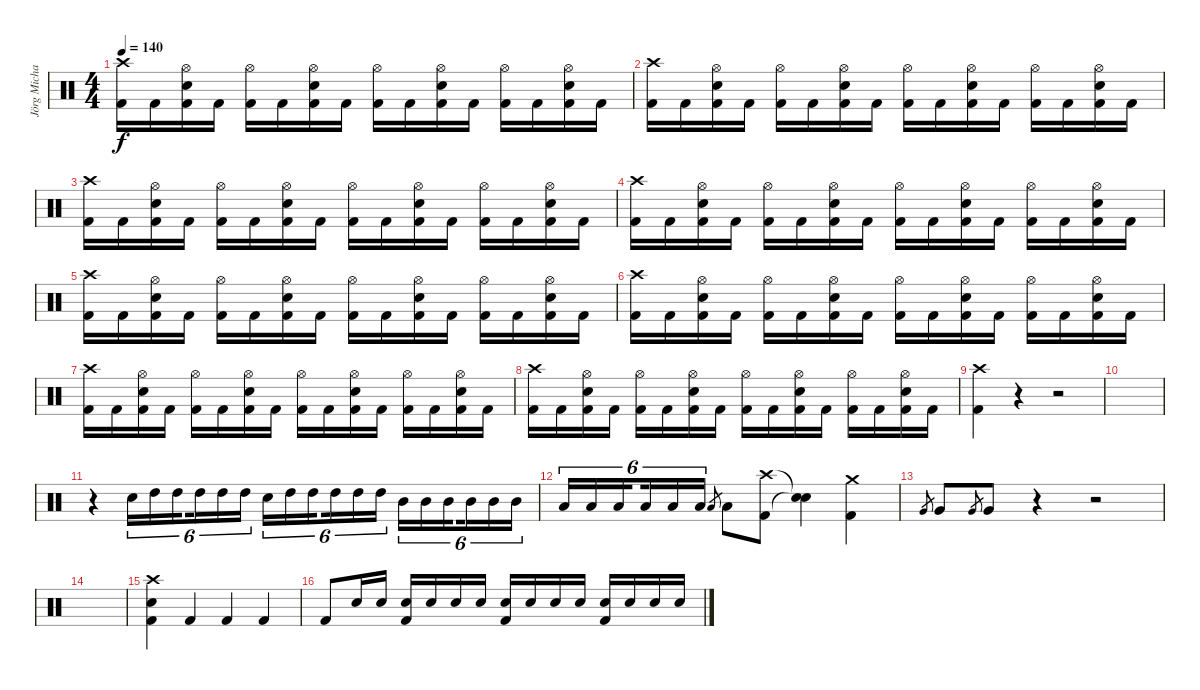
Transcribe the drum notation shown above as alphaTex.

\track ("Jörg Michael" "Jörg Micha") {instrument percussion}
\staff {score}
\articulation defaults
\ts (4 4)
\tempo 140
\clef neutral
\ks c
("Crash high (hit)" "Kick (hit) 2").16{dy f} "Kick (hit) 2".16 ("Electric Snare (hit)" "Kick (hit) 2" "Hi-Hat (open)").16 "Kick (hit) 2".16 ("Kick (hit) 2" "Hi-Hat (open)").16 "Kick (hit) 2".16 ("Electric Snare (hit)" "Kick (hit) 2" "Hi-Hat (open)").16 "Kick (hit) 2".16 ("Kick (hit) 2" "Hi-Hat (open)").16 "Kick (hit) 2".16 ("Electric Snare (hit)" "Kick (hit) 2" "Hi-Hat (open)").16 "Kick (hit) 2".16 ("Kick (hit) 2" "Hi-Hat (open)").16 "Kick (hit) 2".16 ("Electric Snare (hit)" "Kick (hit) 2" "Hi-Hat (open)").16 "Kick (hit) 2".16 |
("Crash high (hit)" "Kick (hit) 2").16 "Kick (hit) 2".16 ("Electric Snare (hit)" "Kick (hit) 2" "Hi-Hat (open)").16 "Kick (hit) 2".16 ("Kick (hit) 2" "Hi-Hat (open)").16 "Kick (hit) 2".16 ("Electric Snare (hit)" "Kick (hit) 2" "Hi-Hat (open)").16 "Kick (hit) 2".16 ("Kick (hit) 2" "Hi-Hat (open)").16 "Kick (hit) 2".16 ("Electric Snare (hit)" "Kick (hit) 2" "Hi-Hat (open)").16 "Kick (hit) 2".16 ("Kick (hit) 2" "Hi-Hat (open)").16 "Kick (hit) 2".16 ("Electric Snare (hit)" "Kick (hit) 2" "Hi-Hat (open)").16 "Kick (hit) 2".16 |
("Crash high (hit)" "Kick (hit) 2").16 "Kick (hit) 2".16 ("Electric Snare (hit)" "Kick (hit) 2" "Hi-Hat (open)").16 "Kick (hit) 2".16 ("Kick (hit) 2" "Hi-Hat (open)").16 "Kick (hit) 2".16 ("Electric Snare (hit)" "Kick (hit) 2" "Hi-Hat (open)").16 "Kick (hit) 2".16 ("Kick (hit) 2" "Hi-Hat (open)").16 "Kick (hit) 2".16 ("Electric Snare (hit)" "Kick (hit) 2" "Hi-Hat (open)").16 "Kick (hit) 2".16 ("Kick (hit) 2" "Hi-Hat (open)").16 "Kick (hit) 2".16 ("Electric Snare (hit)" "Kick (hit) 2" "Hi-Hat (open)").16 "Kick (hit) 2".16 |
("Crash high (hit)" "Kick (hit) 2").16 "Kick (hit) 2".16 ("Electric Snare (hit)" "Kick (hit) 2" "Hi-Hat (open)").16 "Kick (hit) 2".16 ("Kick (hit) 2" "Hi-Hat (open)").16 "Kick (hit) 2".16 ("Electric Snare (hit)" "Kick (hit) 2" "Hi-Hat (open)").16 "Kick (hit) 2".16 ("Kick (hit) 2" "Hi-Hat (open)").16 "Kick (hit) 2".16 ("Electric Snare (hit)" "Kick (hit) 2" "Hi-Hat (open)").16 "Kick (hit) 2".16 ("Kick (hit) 2" "Hi-Hat (open)").16 "Kick (hit) 2".16 ("Electric Snare (hit)" "Kick (hit) 2" "Hi-Hat (open)").16 "Kick (hit) 2".16 |
("Crash high (hit)" "Kick (hit) 2").16 "Kick (hit) 2".16 ("Electric Snare (hit)" "Kick (hit) 2" "Hi-Hat (open)").16 "Kick (hit) 2".16 ("Kick (hit) 2" "Hi-Hat (open)").16 "Kick (hit) 2".16 ("Electric Snare (hit)" "Kick (hit) 2" "Hi-Hat (open)").16 "Kick (hit) 2".16 ("Kick (hit) 2" "Hi-Hat (open)").16 "Kick (hit) 2".16 ("Electric Snare (hit)" "Kick (hit) 2" "Hi-Hat (open)").16 "Kick (hit) 2".16 ("Kick (hit) 2" "Hi-Hat (open)").16 "Kick (hit) 2".16 ("Electric Snare (hit)" "Kick (hit) 2" "Hi-Hat (open)").16 "Kick (hit) 2".16 |
("Crash high (hit)" "Kick (hit) 2").16 "Kick (hit) 2".16 ("Electric Snare (hit)" "Kick (hit) 2" "Hi-Hat (open)").16 "Kick (hit) 2".16 ("Kick (hit) 2" "Hi-Hat (open)").16 "Kick (hit) 2".16 ("Electric Snare (hit)" "Kick (hit) 2" "Hi-Hat (open)").16 "Kick (hit) 2".16 ("Kick (hit) 2" "Hi-Hat (open)").16 "Kick (hit) 2".16 ("Electric Snare (hit)" "Kick (hit) 2" "Hi-Hat (open)").16 "Kick (hit) 2".16 ("Kick (hit) 2" "Hi-Hat (open)").16 "Kick (hit) 2".16 ("Electric Snare (hit)" "Kick (hit) 2" "Hi-Hat (open)").16 "Kick (hit) 2".16 |
("Crash high (hit)" "Kick (hit) 2").16 "Kick (hit) 2".16 ("Electric Snare (hit)" "Kick (hit) 2" "Hi-Hat (open)").16 "Kick (hit) 2".16 ("Kick (hit) 2" "Hi-Hat (open)").16 "Kick (hit) 2".16 ("Electric Snare (hit)" "Kick (hit) 2" "Hi-Hat (open)").16 "Kick (hit) 2".16 ("Kick (hit) 2" "Hi-Hat (open)").16 "Kick (hit) 2".16 ("Electric Snare (hit)" "Kick (hit) 2" "Hi-Hat (open)").16 "Kick (hit) 2".16 ("Kick (hit) 2" "Hi-Hat (open)").16 "Kick (hit) 2".16 ("Electric Snare (hit)" "Kick (hit) 2" "Hi-Hat (open)").16 "Kick (hit) 2".16 |
("Crash high (hit)" "Kick (hit) 2").16 "Kick (hit) 2".16 ("Electric Snare (hit)" "Kick (hit) 2" "Hi-Hat (open)").16 "Kick (hit) 2".16 ("Kick (hit) 2" "Hi-Hat (open)").16 "Kick (hit) 2".16 ("Electric Snare (hit)" "Kick (hit) 2" "Hi-Hat (open)").16 "Kick (hit) 2".16 ("Kick (hit) 2" "Hi-Hat (open)").16 "Kick (hit) 2".16 ("Electric Snare (hit)" "Kick (hit) 2" "Hi-Hat (open)").16 "Kick (hit) 2".16 ("Kick (hit) 2" "Hi-Hat (open)").16 "Kick (hit) 2".16 ("Electric Snare (hit)" "Kick (hit) 2" "Hi-Hat (open)").16 "Kick (hit) 2".16 |
("Crash high (hit)" "Kick (hit) 2").4 r.4 r.2 |
|
r.4 "Electric Snare (hit)".16{tu (6 4)} "High Tom (hit)".16{tu (6 4)} "High Tom (hit)".16{tu (6 4) beam splitsecondary} "High Tom (hit)".16{tu (6 4)} "High Tom (hit)".16{tu (6 4)} "High Tom (hit)".16{tu (6 4)} "Electric Snare (hit)".16{tu (6 4)} "High Tom (hit)".16{tu (6 4)} "High Tom (hit)".16{tu (6 4) beam splitsecondary} "High Tom (hit)".16{tu (6 4)} "High Tom (hit)".16{tu (6 4)} "High Tom (hit)".16{tu (6 4)} "Mid Tom (hit)".16{tu (6 4)} "Mid Tom (hit)".16{tu (6 4)} "Mid Tom (hit)".16{tu (6 4) beam splitsecondary} "Mid Tom (hit)".16{tu (6 4)} "Mid Tom (hit)".16{tu (6 4)} "Mid Tom (hit)".16{tu (6 4)} |
"Low Tom (hit)".16{tu (6 4)} "Low Tom (hit)".16{tu (6 4)} "Low Tom (hit)".16{tu (6 4) beam splitsecondary} "Low Tom (hit)".16{tu (6 4)} "Low Tom (hit)".16{tu (6 4)} "Low Tom (hit)".16{tu (6 4)} "Low Tom (hit)".8{gr} "Low Tom (hit)".8 ("Crash high (hit)" "Kick (hit) 2").8 ("Snare (hit)"{t} "Snare (hit)"{t}).4 ("Crash medium (hit)" "Kick (hit) 2").4 |
"Very Low Tom (hit)".8{gr} "Very Low Tom (hit)".8 "Very Low Tom (hit)".8{gr} "Very Low Tom (hit)".8 r.4 r.2 |
|
("Crash high (hit)" "Electric Snare (hit)" "Kick (hit) 2").4 "Kick (hit) 2".4 "Kick (hit) 2".4 "Kick (hit) 2".4 |
"Kick (hit) 2".8 "Electric Snare (hit)".16 "Electric Snare (hit)".16 ("Electric Snare (hit)" "Kick (hit) 2").16 "Electric Snare (hit)".16 "Electric Snare (hit)".16 "Electric Snare (hit)".16 ("Electric Snare (hit)" "Kick (hit) 2").16 "Electric Snare (hit)".16 "Electric Snare (hit)".16 "Electric Snare (hit)".16 ("Electric Snare (hit)" "Kick (hit) 2").16 "Electric Snare (hit)".16 "Electric Snare (hit)".16 "Electric Snare (hit)".16
